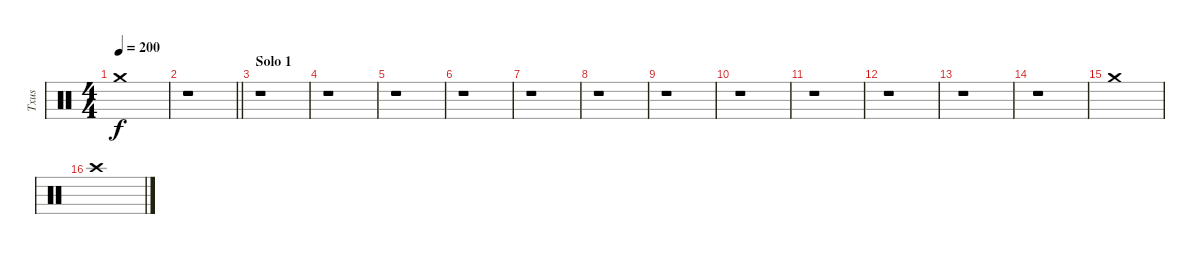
\track ("Txus" "Txus") {instrument percussion}
\staff
\articulation defaults
\ts (4 4)
\tempo 200
\clef neutral
\ks c "Crash medium (hit)".1{dy f}
|
\barLineRight lightlight
r.1 |
\section ("" "Solo 1")
r.1 |
r.1 |
r.1 |
r.1 |
r.1 |
r.1 |
r.1 |
r.1 |
r.1 |
r.1 |
r.1 |
r.1 |
"Crash medium (hit)".1 |
"Crash high (hit)".1
